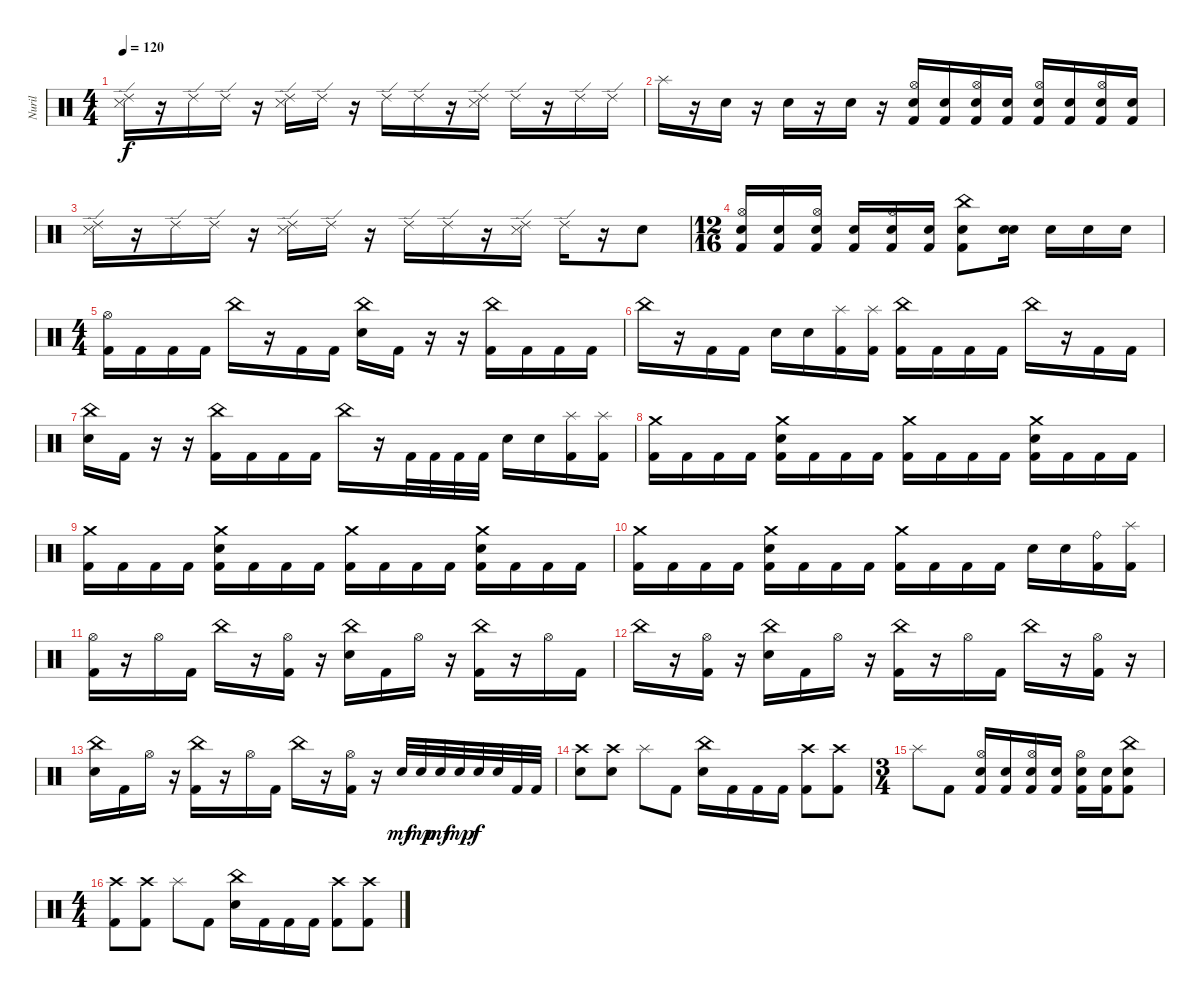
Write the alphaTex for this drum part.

\track ("Nuril" "Nuril") {instrument percussion}
\staff {score}
\articulation defaults
\ts (4 4)
\tempo 120
\clef neutral
\ks c
("Snare (side stick) 3" "Ride (edge) 2").16{dy f} r.16 "Ride (edge) 2".16 "Ride (edge) 2".16 r.16 ("Snare (side stick) 3" "Ride (edge) 2").16 "Ride (edge) 2".16 r.16 "Ride (edge) 2".16 "Ride (edge) 2".16 r.16 ("Snare (side stick) 3" "Ride (edge) 2").16 "Ride (edge) 2".16 r.16 "Ride (edge) 2".16 "Ride (edge) 2".16 |
"Splash (hit)".16 r.16 "Electric Snare (hit)".16 r.16 "Electric Snare (hit)".16 r.16 "Electric Snare (hit)".16 r.16 ("Hi-Hat (open)" "Electric Snare (hit)" "Kick (hit) 2").16 ("Electric Snare (hit)" "Kick (hit) 2").16 ("Hi-Hat (open)" "Electric Snare (hit)" "Kick (hit) 2").16 ("Electric Snare (hit)" "Kick (hit) 2").16 ("Hi-Hat (open)" "Electric Snare (hit)" "Kick (hit) 2").16 ("Electric Snare (hit)" "Kick (hit) 2").16 ("Hi-Hat (open)" "Electric Snare (hit)" "Kick (hit) 2").16 ("Electric Snare (hit)" "Kick (hit) 2").16 |
("Snare (side stick) 3" "Ride (edge) 2").16 r.16 "Ride (edge) 2".16 "Ride (edge) 2".16 r.16 ("Snare (side stick) 3" "Ride (edge) 2").16 "Ride (edge) 2".16 r.16 "Ride (edge) 2".16 "Ride (edge) 2".16 r.16 ("Snare (side stick) 3" "Ride (edge) 2").16 "Ride (edge) 2".16 r.16 "Electric Snare (hit)".8 |
\ts (12 16)
("Hi-Hat (open)" "Electric Snare (hit)" "Kick (hit) 2").16 ("Electric Snare (hit)" "Kick (hit) 2").16 ("Hi-Hat (open)" "Electric Snare (hit)" "Kick (hit) 2").16 ("Electric Snare (hit)" "Kick (hit) 2").16 ("Hi-Hat (open)" "Electric Snare (hit)" "Kick (hit) 2").16 ("Electric Snare (hit)" "Kick (hit) 2").16 ("China (hit)" "Electric Snare (hit)" "Kick (hit) 2").8 ("Electric Snare (hit)" "Electric Snare (hit)").16{bd 480} "Electric Snare (hit)".16 "Electric Snare (hit)".16 "Electric Snare (hit)".16 |
\ts (4 4)
("Hi-Hat (open)" "Kick (hit) 2").16 "Kick (hit) 2".16 "Kick (hit) 2".16 "Kick (hit) 2".16 "China (hit)".16 r.16 "Kick (hit) 2".16 "Kick (hit) 2".16 ("China (hit)" "Electric Snare (hit)").16 "Kick (hit) 2".16 r.16 r.16 ("China (hit)" "Kick (hit) 2").16 "Kick (hit) 2".16 "Kick (hit) 2".16 "Kick (hit) 2".16 |
"China (hit)".16 r.16 "Kick (hit) 2".16 "Kick (hit) 2".16 "Electric Snare (hit)".16 "Electric Snare (hit)".16 ("Splash (hit)" "Kick (hit) 2").16 ("Splash (hit)" "Kick (hit) 2").16 ("China (hit)" "Kick (hit) 2").16 "Kick (hit) 2".16 "Kick (hit) 2".16 "Kick (hit) 2".16 "China (hit)".16 r.16 "Kick (hit) 2".16 "Kick (hit) 2".16 |
("China (hit)" "Electric Snare (hit)").16 "Kick (hit) 2".16 r.16 r.16 ("China (hit)" "Kick (hit) 2").16 "Kick (hit) 2".16 "Kick (hit) 2".16 "Kick (hit) 2".16 "China (hit)".16 r.16 "Kick (hit) 2".32 "Kick (hit) 2".32 "Kick (hit) 2".32 "Kick (hit) 2".32 "Electric Snare (hit)".16 "Electric Snare (hit)".16 ("Splash (hit)" "Kick (hit) 2").16 ("Splash (hit)" "Kick (hit) 2").16 |
("Crash medium (hit)" "Kick (hit) 2").16 "Kick (hit) 2".16 "Kick (hit) 2".16 "Kick (hit) 2".16 ("Crash medium (hit)" "Electric Snare (hit)" "Kick (hit) 2").16 "Kick (hit) 2".16 "Kick (hit) 2".16 "Kick (hit) 2".16 ("Crash medium (hit)" "Kick (hit) 2").16 "Kick (hit) 2".16 "Kick (hit) 2".16 "Kick (hit) 2".16 ("Crash medium (hit)" "Electric Snare (hit)" "Kick (hit) 2").16 "Kick (hit) 2".16 "Kick (hit) 2".16 "Kick (hit) 2".16 |
("Crash medium (hit)" "Kick (hit) 2").16 "Kick (hit) 2".16 "Kick (hit) 2".16 "Kick (hit) 2".16 ("Crash medium (hit)" "Electric Snare (hit)" "Kick (hit) 2").16 "Kick (hit) 2".16 "Kick (hit) 2".16 "Kick (hit) 2".16 ("Crash medium (hit)" "Kick (hit) 2").16 "Kick (hit) 2".16 "Kick (hit) 2".16 "Kick (hit) 2".16 ("Crash medium (hit)" "Electric Snare (hit)" "Kick (hit) 2").16 "Kick (hit) 2".16 "Kick (hit) 2".16 "Kick (hit) 2".16 |
("Crash medium (hit)" "Kick (hit) 2").16 "Kick (hit) 2".16 "Kick (hit) 2".16 "Kick (hit) 2".16 ("Crash medium (hit)" "Electric Snare (hit)" "Kick (hit) 2").16 "Kick (hit) 2".16 "Kick (hit) 2".16 "Kick (hit) 2".16 ("Crash medium (hit)" "Kick (hit) 2").16 "Kick (hit) 2".16 "Kick (hit) 2".16 "Kick (hit) 2".16 "Electric Snare (hit)".16 "Electric Snare (hit)".16 ("Ride (bell)" "Kick (hit) 2").16 ("Splash (hit)" "Kick (hit) 2").16 |
("Hi-Hat (open)" "Kick (hit) 2").16 r.16 "Hi-Hat (open)".16 "Kick (hit) 2".16 "China (hit)".16 r.16 ("Hi-Hat (open)" "Kick (hit) 2").16 r.16 ("China (hit)" "Electric Snare (hit)").16 "Kick (hit) 2".16 "Hi-Hat (open)".16 r.16 ("China (hit)" "Kick (hit) 2").16 r.16 "Hi-Hat (open)".16 "Kick (hit) 2".16 |
"China (hit)".16 r.16 ("Hi-Hat (open)" "Kick (hit) 2").16 r.16 ("China (hit)" "Electric Snare (hit)").16 "Kick (hit) 2".16 "Hi-Hat (open)".16 r.16 ("China (hit)" "Kick (hit) 2").16 r.16 "Hi-Hat (open)".16 "Kick (hit) 2".16 "China (hit)".16 r.16 ("Hi-Hat (open)" "Kick (hit) 2").16 r.16 |
("China (hit)" "Electric Snare (hit)").16 "Kick (hit) 2".16 "Hi-Hat (open)".16 r.16 ("China (hit)" "Kick (hit) 2").16 r.16 "Hi-Hat (open)".16 "Kick (hit) 2".16 "China (hit)".16 r.16 ("Hi-Hat (open)" "Kick (hit) 2").16 r.16 "Electric Snare (hit)".32{dy mf} "Electric Snare (hit)".32{dy mp} "Electric Snare (hit)".32{dy mf} "Electric Snare (hit)".32{dy mp} "Electric Snare (hit)".32{dy f} "Electric Snare (hit)".32 "Kick (hit) 2".32 "Kick (hit) 2".32 |
("Crash high (hit)" "Electric Snare (hit)").8 ("Crash high (hit)" "Electric Snare (hit)").8 "Splash (hit)".8 "Kick (hit) 2".8 ("China (hit)" "Electric Snare (hit)").16 "Kick (hit) 2".16 "Kick (hit) 2".16 "Kick (hit) 2".16 ("Crash high (hit)" "Kick (hit) 2").8 ("Crash high (hit)" "Kick (hit) 2").8 |
\ts (3 4)
"Splash (hit)".8 "Kick (hit) 2".8 ("Hi-Hat (open)" "Electric Snare (hit)" "Kick (hit) 2").16 ("Electric Snare (hit)" "Kick (hit) 2").16 ("Hi-Hat (open)" "Electric Snare (hit)" "Kick (hit) 2").16 ("Electric Snare (hit)" "Kick (hit) 2").16 ("Hi-Hat (open)" "Electric Snare (hit)" "Kick (hit) 2").16 ("Electric Snare (hit)" "Kick (hit) 2").16 ("China (hit)" "Electric Snare (hit)" "Kick (hit) 2").8 |
\ts (4 4)
("Crash high (hit)" "Kick (hit) 2").8 ("Crash high (hit)" "Kick (hit) 2").8 "Splash (hit)".8 "Kick (hit) 2".8 ("China (hit)" "Electric Snare (hit)").16 "Kick (hit) 2".16 "Kick (hit) 2".16 "Kick (hit) 2".16 ("Crash high (hit)" "Kick (hit) 2").8 ("Crash high (hit)" "Kick (hit) 2").8
